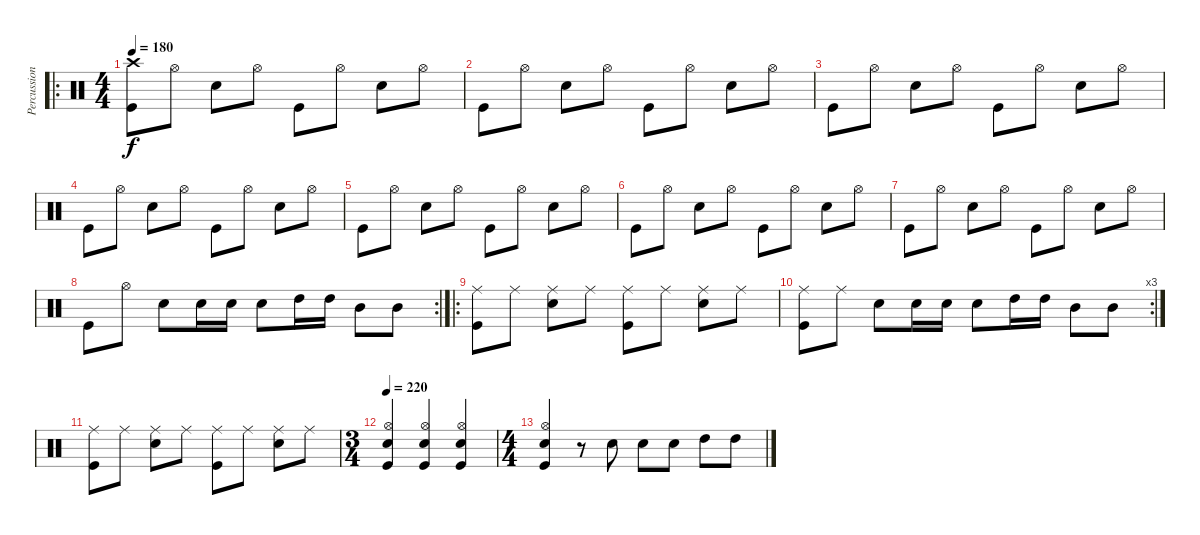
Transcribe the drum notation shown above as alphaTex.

\track ("Percussioni" "Percussion") {instrument percussion}
\staff {score}
\articulation defaults
\ro
\ts (4 4)
\tempo 180
\clef neutral
\ks c
("Crash high (hit)" "Kick (hit)").8{dy f} "Hi-Hat (open)".8 "Snare (hit) 2".8 "Hi-Hat (open)".8 "Kick (hit)".8 "Hi-Hat (open)".8 "Snare (hit) 2".8 "Hi-Hat (open)".8 |
"Kick (hit)".8 "Hi-Hat (open)".8 "Snare (hit) 2".8 "Hi-Hat (open)".8 "Kick (hit)".8 "Hi-Hat (open)".8 "Snare (hit) 2".8 "Hi-Hat (open)".8 |
"Kick (hit)".8 "Hi-Hat (open)".8 "Snare (hit) 2".8 "Hi-Hat (open)".8 "Kick (hit)".8 "Hi-Hat (open)".8 "Snare (hit) 2".8 "Hi-Hat (open)".8 |
"Kick (hit)".8 "Hi-Hat (open)".8 "Snare (hit) 2".8 "Hi-Hat (open)".8 "Kick (hit)".8 "Hi-Hat (open)".8 "Snare (hit) 2".8 "Hi-Hat (open)".8 |
"Kick (hit)".8 "Hi-Hat (open)".8 "Snare (hit) 2".8 "Hi-Hat (open)".8 "Kick (hit)".8 "Hi-Hat (open)".8 "Snare (hit) 2".8 "Hi-Hat (open)".8 |
"Kick (hit)".8 "Hi-Hat (open)".8 "Snare (hit) 2".8 "Hi-Hat (open)".8 "Kick (hit)".8 "Hi-Hat (open)".8 "Snare (hit) 2".8 "Hi-Hat (open)".8 |
"Kick (hit)".8 "Hi-Hat (open)".8 "Snare (hit) 2".8 "Hi-Hat (open)".8 "Kick (hit)".8 "Hi-Hat (open)".8 "Snare (hit) 2".8 "Hi-Hat (open)".8 |
\rc 2 "Kick (hit)".8 "Hi-Hat (open)".8 "Snare (hit) 2".8 "Snare (hit) 2".16 "Snare (hit) 2".16 "Snare (hit) 2".8 "High Tom (hit)".16 "High Tom (hit)".16 "Mid Tom (hit)".8 "Mid Tom (hit)".8
|
\ro
("Ride (middle)" "Kick (hit)").8 "Ride (middle)".8 ("Ride (middle)" "Snare (hit) 2").8 "Ride (middle)".8 ("Ride (middle)" "Kick (hit)").8 "Ride (middle)".8 ("Ride (middle)" "Snare (hit) 2").8 "Ride (middle)".8 |
\rc 3
("Ride (middle)" "Kick (hit)").8 "Ride (middle)".8 "Snare (hit) 2".8 "Snare (hit) 2".16 "Snare (hit) 2".16 "Snare (hit) 2".8 "High Tom (hit)".16 "High Tom (hit)".16 "Mid Tom (hit)".8 "Mid Tom (hit)".8 |
("Ride (middle)" "Kick (hit)").8 "Ride (middle)".8 ("Ride (middle)" "Snare (hit) 2").8 "Ride (middle)".8 ("Ride (middle)" "Kick (hit)").8 "Ride (middle)".8 ("Ride (middle)" "Snare (hit) 2").8 "Ride (middle)".8 |
\ts (3 4)
\tempo 220
("Hi-Hat (open)" "Snare (hit) 2" "Kick (hit)").4 ("Hi-Hat (open)" "Snare (hit) 2" "Kick (hit)").4 ("Hi-Hat (open)" "Snare (hit) 2" "Kick (hit)").4 |
\ts (4 4)
("Hi-Hat (open)" "Snare (hit) 2" "Kick (hit)").4 r.8 "Snare (hit) 2".8 "Snare (hit) 2".8 "Snare (hit) 2".8 "High Tom (hit)".8 "High Tom (hit)".8
